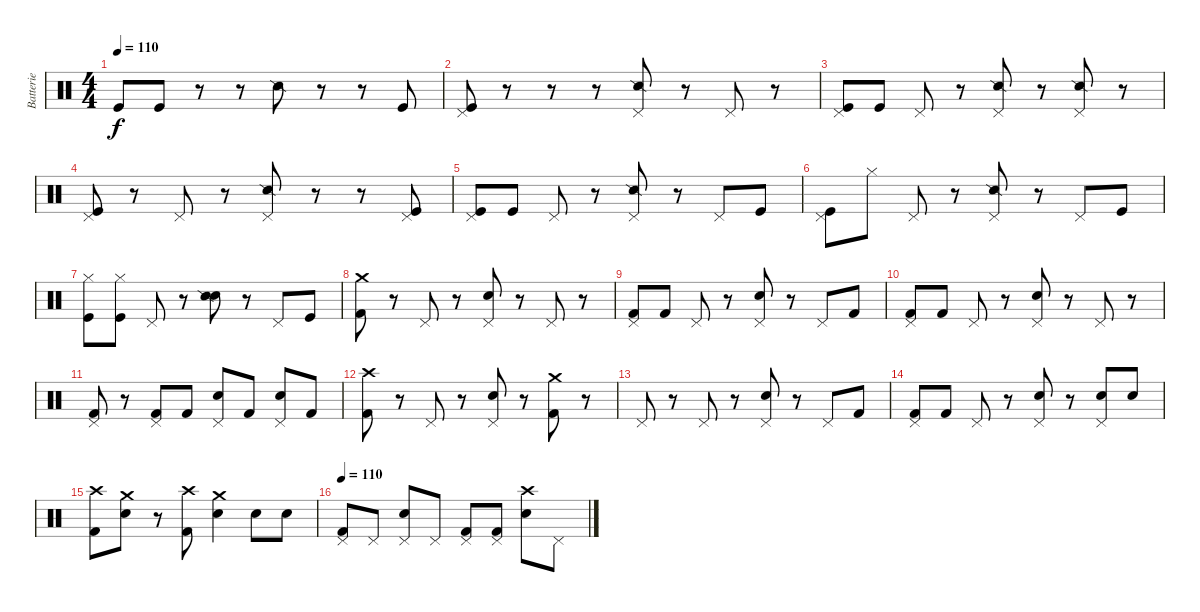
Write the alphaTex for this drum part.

\track ("Batterie" "Batterie") {instrument percussion}
\staff {score}
\articulation defaults
\ts (4 4)
\tempo 110
\clef neutral
\ks c "Kick (hit)".8{dy f} "Kick (hit)".8
r.8 r.8 "Snare (side stick) 2".8 r.8 r.8 "Kick (hit)".8 |
("Pedal Hi-Hat (hit)" "Kick (hit)").8 r.8 r.8 r.8 ("Pedal Hi-Hat (hit)" "Snare (side stick) 2").8 r.8 "Pedal Hi-Hat (hit)".8 r.8 |
("Pedal Hi-Hat (hit)" "Kick (hit)").8 "Kick (hit)".8 "Pedal Hi-Hat (hit)".8 r.8 ("Pedal Hi-Hat (hit)" "Snare (side stick) 2").8 r.8 ("Pedal Hi-Hat (hit)" "Snare (side stick) 2").8 r.8 |
("Pedal Hi-Hat (hit)" "Kick (hit)").8 r.8 "Pedal Hi-Hat (hit)".8 r.8 ("Pedal Hi-Hat (hit)" "Snare (side stick) 2").8 r.8 r.8 ("Pedal Hi-Hat (hit)" "Kick (hit)").8 |
("Pedal Hi-Hat (hit)" "Kick (hit)").8 "Kick (hit)".8 "Pedal Hi-Hat (hit)".8 r.8 ("Pedal Hi-Hat (hit)" "Snare (side stick) 2").8 r.8 "Pedal Hi-Hat (hit)".8 "Kick (hit)".8 |
("Pedal Hi-Hat (hit)" "Kick (hit)").8 "Hi-Hat (closed)".8 "Pedal Hi-Hat (hit)".8 r.8 ("Pedal Hi-Hat (hit)" "Snare (side stick) 2").8 r.8 "Pedal Hi-Hat (hit)".8 "Kick (hit)".8 |
("Hi-Hat (closed)" "Kick (hit)").8 ("Hi-Hat (closed)" "Kick (hit)").8 "Pedal Hi-Hat (hit)".8 r.8 ("Snare (hit)" "Snare (side stick) 2").8 r.8 "Pedal Hi-Hat (hit)".8 "Kick (hit)".8 |
("Crash medium (hit)" "Kick (hit) 2").8 r.8 "Pedal Hi-Hat (hit)".8 r.8 ("Pedal Hi-Hat (hit)" "Electric Snare (hit)").8 r.8 "Pedal Hi-Hat (hit)".8 r.8 |
("Pedal Hi-Hat (hit)" "Kick (hit) 2").8 "Kick (hit) 2".8 "Pedal Hi-Hat (hit)".8 r.8 ("Pedal Hi-Hat (hit)" "Electric Snare (hit)").8 r.8 "Pedal Hi-Hat (hit)".8 "Kick (hit) 2".8 |
("Pedal Hi-Hat (hit)" "Kick (hit) 2").8 "Kick (hit) 2".8 "Pedal Hi-Hat (hit)".8 r.8 ("Pedal Hi-Hat (hit)" "Electric Snare (hit)").8 r.8 "Pedal Hi-Hat (hit)".8 r.8 |
("Pedal Hi-Hat (hit)" "Kick (hit) 2").8 r.8 ("Pedal Hi-Hat (hit)" "Kick (hit) 2").8 "Kick (hit) 2".8 ("Pedal Hi-Hat (hit)" "Electric Snare (hit)").8 "Kick (hit) 2".8 ("Pedal Hi-Hat (hit)" "Electric Snare (hit)").8 "Kick (hit) 2".8 |
("Crash high (hit)" "Kick (hit) 2").8 r.8 "Pedal Hi-Hat (hit)".8 r.8 ("Pedal Hi-Hat (hit)" "Electric Snare (hit)").8 r.8 ("Crash medium (hit)" "Kick (hit) 2").8 r.8 |
"Pedal Hi-Hat (hit)".8 r.8 "Pedal Hi-Hat (hit)".8 r.8 ("Pedal Hi-Hat (hit)" "Electric Snare (hit)").8 r.8 "Pedal Hi-Hat (hit)".8 "Kick (hit) 2".8 |
("Pedal Hi-Hat (hit)" "Kick (hit) 2").8 "Kick (hit) 2".8 "Pedal Hi-Hat (hit)".8 r.8 ("Pedal Hi-Hat (hit)" "Electric Snare (hit)").8 r.8 ("Pedal Hi-Hat (hit)" "Electric Snare (hit)").8 "Electric Snare (hit)".8 |
("Crash high (hit)" "Kick (hit) 2").8 ("Crash medium (hit)" "Electric Snare (hit)").8 r.8 ("Crash high (hit)" "Kick (hit) 2").8 ("Crash medium (hit)" "Electric Snare (hit)").4 "Electric Snare (hit)".8 "Electric Snare (hit)".8 |
\tempo 110
("Pedal Hi-Hat (hit)" "Kick (hit) 2").8 "Pedal Hi-Hat (hit)".8 ("Pedal Hi-Hat (hit)" "Electric Snare (hit)").8 "Pedal Hi-Hat (hit)".8 ("Pedal Hi-Hat (hit)" "Kick (hit) 2").8 ("Pedal Hi-Hat (hit)" "Kick (hit) 2").8 ("Crash high (hit)" "Electric Snare (hit)").8 "Pedal Hi-Hat (hit)".8
